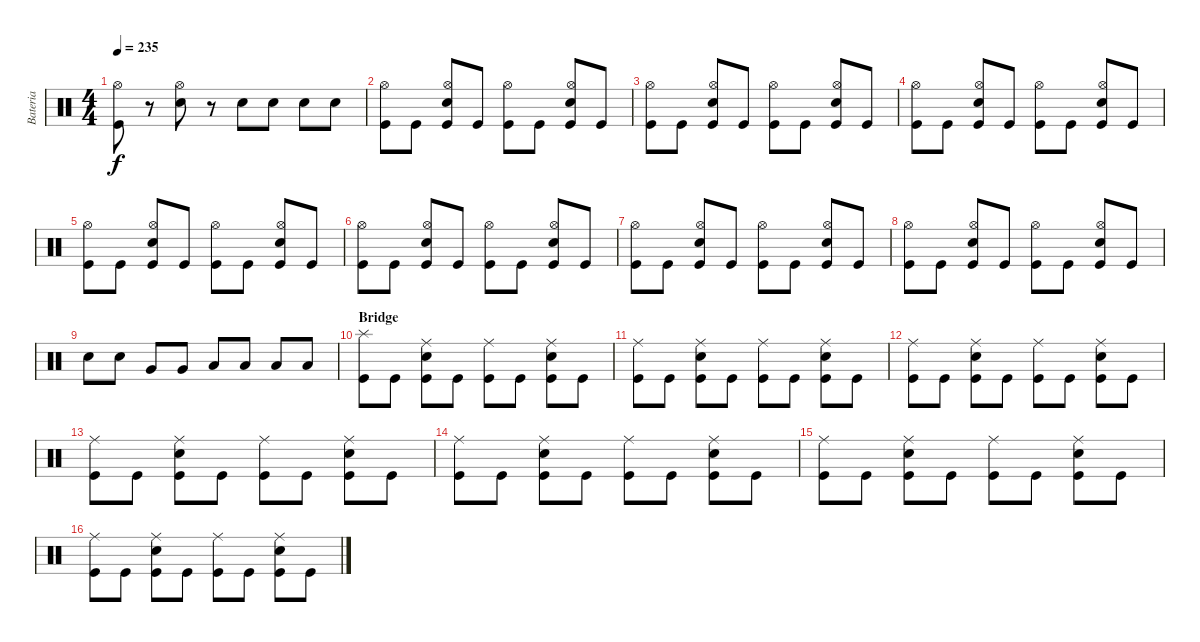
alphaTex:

\track ("Bateria" "Bateria") {instrument percussion}
\staff {score}
\articulation defaults
\ts (4 4)
\tempo 235
\clef neutral
\ks c
("Kick (hit)" "Hi-Hat (open)").8{dy f} r.8 ("Electric Snare (hit)" "Hi-Hat (open)").8 r.8 "Electric Snare (hit)".8 "Electric Snare (hit)".8 "Electric Snare (hit)".8 "Electric Snare (hit)".8 |
("Kick (hit)" "Hi-Hat (open)").8 "Kick (hit)".8 ("Kick (hit)" "Electric Snare (hit)" "Hi-Hat (open)").8 "Kick (hit)".8 ("Kick (hit)" "Hi-Hat (open)").8 "Kick (hit)".8 ("Kick (hit)" "Electric Snare (hit)" "Hi-Hat (open)").8 "Kick (hit)".8 |
("Kick (hit)" "Hi-Hat (open)").8 "Kick (hit)".8 ("Kick (hit)" "Electric Snare (hit)" "Hi-Hat (open)").8 "Kick (hit)".8 ("Kick (hit)" "Hi-Hat (open)").8 "Kick (hit)".8 ("Kick (hit)" "Electric Snare (hit)" "Hi-Hat (open)").8 "Kick (hit)".8 |
("Kick (hit)" "Hi-Hat (open)").8 "Kick (hit)".8 ("Kick (hit)" "Electric Snare (hit)" "Hi-Hat (open)").8 "Kick (hit)".8 ("Kick (hit)" "Hi-Hat (open)").8 "Kick (hit)".8 ("Kick (hit)" "Electric Snare (hit)" "Hi-Hat (open)").8 "Kick (hit)".8 |
("Kick (hit)" "Hi-Hat (open)").8 "Kick (hit)".8 ("Kick (hit)" "Electric Snare (hit)" "Hi-Hat (open)").8 "Kick (hit)".8 ("Kick (hit)" "Hi-Hat (open)").8 "Kick (hit)".8 ("Kick (hit)" "Electric Snare (hit)" "Hi-Hat (open)").8 "Kick (hit)".8 |
("Kick (hit)" "Hi-Hat (open)").8 "Kick (hit)".8 ("Kick (hit)" "Electric Snare (hit)" "Hi-Hat (open)").8 "Kick (hit)".8 ("Kick (hit)" "Hi-Hat (open)").8 "Kick (hit)".8 ("Kick (hit)" "Electric Snare (hit)" "Hi-Hat (open)").8 "Kick (hit)".8 |
("Kick (hit)" "Hi-Hat (open)").8 "Kick (hit)".8 ("Kick (hit)" "Electric Snare (hit)" "Hi-Hat (open)").8 "Kick (hit)".8 ("Kick (hit)" "Hi-Hat (open)").8 "Kick (hit)".8 ("Kick (hit)" "Electric Snare (hit)" "Hi-Hat (open)").8 "Kick (hit)".8 |
("Kick (hit)" "Hi-Hat (open)").8 "Kick (hit)".8 ("Kick (hit)" "Electric Snare (hit)" "Hi-Hat (open)").8 "Kick (hit)".8 ("Kick (hit)" "Hi-Hat (open)").8 "Kick (hit)".8 ("Kick (hit)" "Electric Snare (hit)" "Hi-Hat (open)").8 "Kick (hit)".8 |
"Electric Snare (hit)".8 "Electric Snare (hit)".8 "Very Low Tom (hit)".8 "Very Low Tom (hit)".8 "Low Floor Tom (hit)".8 "Low Floor Tom (hit)".8 "Low Tom (hit)".8 "Low Tom (hit)".8 |
\section ("" "Bridge")
("Kick (hit)" "Splash (hit)").8 "Kick (hit)".8 ("Kick (hit)" "Electric Snare (hit)" "Ride (middle)").8 "Kick (hit)".8 ("Kick (hit)" "Ride (middle)").8 "Kick (hit)".8 ("Kick (hit)" "Electric Snare (hit)" "Ride (middle)").8 "Kick (hit)".8 |
("Kick (hit)" "Ride (middle)").8 "Kick (hit)".8 ("Kick (hit)" "Electric Snare (hit)" "Ride (middle)").8 "Kick (hit)".8 ("Kick (hit)" "Ride (middle)").8 "Kick (hit)".8 ("Kick (hit)" "Electric Snare (hit)" "Ride (middle)").8 "Kick (hit)".8 |
("Kick (hit)" "Ride (middle)").8 "Kick (hit)".8 ("Kick (hit)" "Electric Snare (hit)" "Ride (middle)").8 "Kick (hit)".8 ("Kick (hit)" "Ride (middle)").8 "Kick (hit)".8 ("Kick (hit)" "Electric Snare (hit)" "Ride (middle)").8 "Kick (hit)".8 |
("Kick (hit)" "Ride (middle)").8 "Kick (hit)".8 ("Kick (hit)" "Electric Snare (hit)" "Ride (middle)").8 "Kick (hit)".8 ("Kick (hit)" "Ride (middle)").8 "Kick (hit)".8 ("Kick (hit)" "Electric Snare (hit)" "Ride (middle)").8 "Kick (hit)".8 |
("Kick (hit)" "Ride (middle)").8 "Kick (hit)".8 ("Kick (hit)" "Electric Snare (hit)" "Ride (middle)").8 "Kick (hit)".8 ("Kick (hit)" "Ride (middle)").8 "Kick (hit)".8 ("Kick (hit)" "Electric Snare (hit)" "Ride (middle)").8 "Kick (hit)".8 |
("Kick (hit)" "Ride (middle)").8 "Kick (hit)".8 ("Kick (hit)" "Electric Snare (hit)" "Ride (middle)").8 "Kick (hit)".8 ("Kick (hit)" "Ride (middle)").8 "Kick (hit)".8 ("Kick (hit)" "Electric Snare (hit)" "Ride (middle)").8 "Kick (hit)".8 |
("Kick (hit)" "Ride (middle)").8 "Kick (hit)".8 ("Kick (hit)" "Electric Snare (hit)" "Ride (middle)").8 "Kick (hit)".8 ("Kick (hit)" "Ride (middle)").8 "Kick (hit)".8 ("Kick (hit)" "Electric Snare (hit)" "Ride (middle)").8 "Kick (hit)".8
